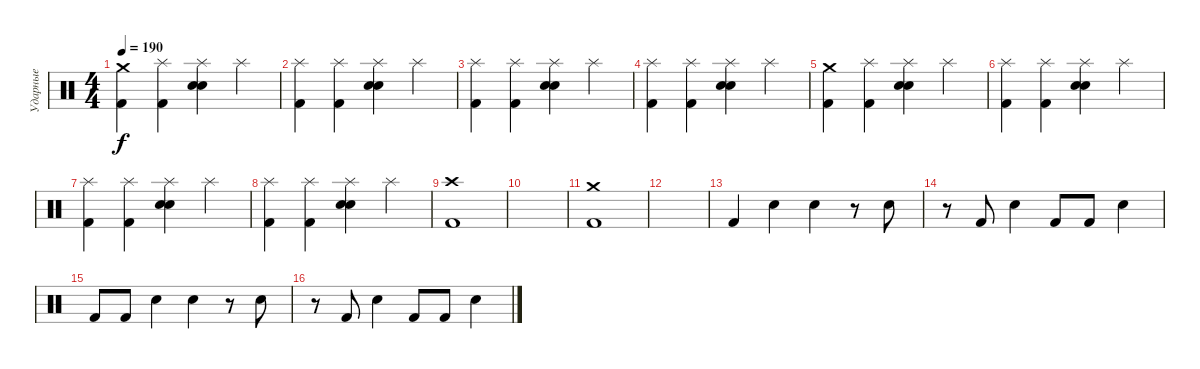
\track ("Ударные" "Ударные") {instrument percussion}
\staff {score}
\articulation defaults
\ts (4 4)
\tempo 190
\clef neutral
\ks c
("Crash medium (hit)" "Kick (hit) 2").4{dy f} ("Splash (hit)" "Kick (hit) 2").4 ("Splash (hit)" "Electric Snare (hit)" "Snare (hit) 2").4 "Splash (hit)".4 |
("Splash (hit)" "Kick (hit) 2").4 ("Splash (hit)" "Kick (hit) 2").4 ("Splash (hit)" "Electric Snare (hit)" "Snare (hit) 2").4 "Splash (hit)".4 |
("Splash (hit)" "Kick (hit) 2").4 ("Splash (hit)" "Kick (hit) 2").4 ("Splash (hit)" "Electric Snare (hit)" "Snare (hit) 2").4 "Splash (hit)".4 |
("Splash (hit)" "Kick (hit) 2").4 ("Splash (hit)" "Kick (hit) 2").4 ("Splash (hit)" "Electric Snare (hit)" "Snare (hit) 2").4 "Splash (hit)".4 |
("Crash medium (hit)" "Kick (hit) 2").4 ("Splash (hit)" "Kick (hit) 2").4 ("Splash (hit)" "Electric Snare (hit)" "Snare (hit) 2").4 "Splash (hit)".4 |
("Splash (hit)" "Kick (hit) 2").4 ("Splash (hit)" "Kick (hit) 2").4 ("Splash (hit)" "Electric Snare (hit)" "Snare (hit) 2").4 "Splash (hit)".4 |
("Splash (hit)" "Kick (hit) 2").4 ("Splash (hit)" "Kick (hit) 2").4 ("Splash (hit)" "Electric Snare (hit)" "Snare (hit) 2").4 "Splash (hit)".4 |
("Splash (hit)" "Kick (hit) 2").4 ("Splash (hit)" "Kick (hit) 2").4 ("Splash (hit)" "Electric Snare (hit)" "Snare (hit) 2").4 "Splash (hit)".4 |
("Crash high (hit)" "Kick (hit) 2").1 |
|
("Crash medium (hit)" "Kick (hit) 2").1 |
|
"Kick (hit) 2".4 "Electric Snare (hit)".4 "Electric Snare (hit)".4 r.8 "Electric Snare (hit)".8 |
r.8 "Kick (hit) 2".8 "Electric Snare (hit)".4 "Kick (hit) 2".8 "Kick (hit) 2".8 "Electric Snare (hit)".4 |
"Kick (hit) 2".8 "Kick (hit) 2".8 "Electric Snare (hit)".4 "Electric Snare (hit)".4 r.8 "Electric Snare (hit)".8 |
r.8 "Kick (hit) 2".8 "Electric Snare (hit)".4 "Kick (hit) 2".8 "Kick (hit) 2".8 "Electric Snare (hit)".4
